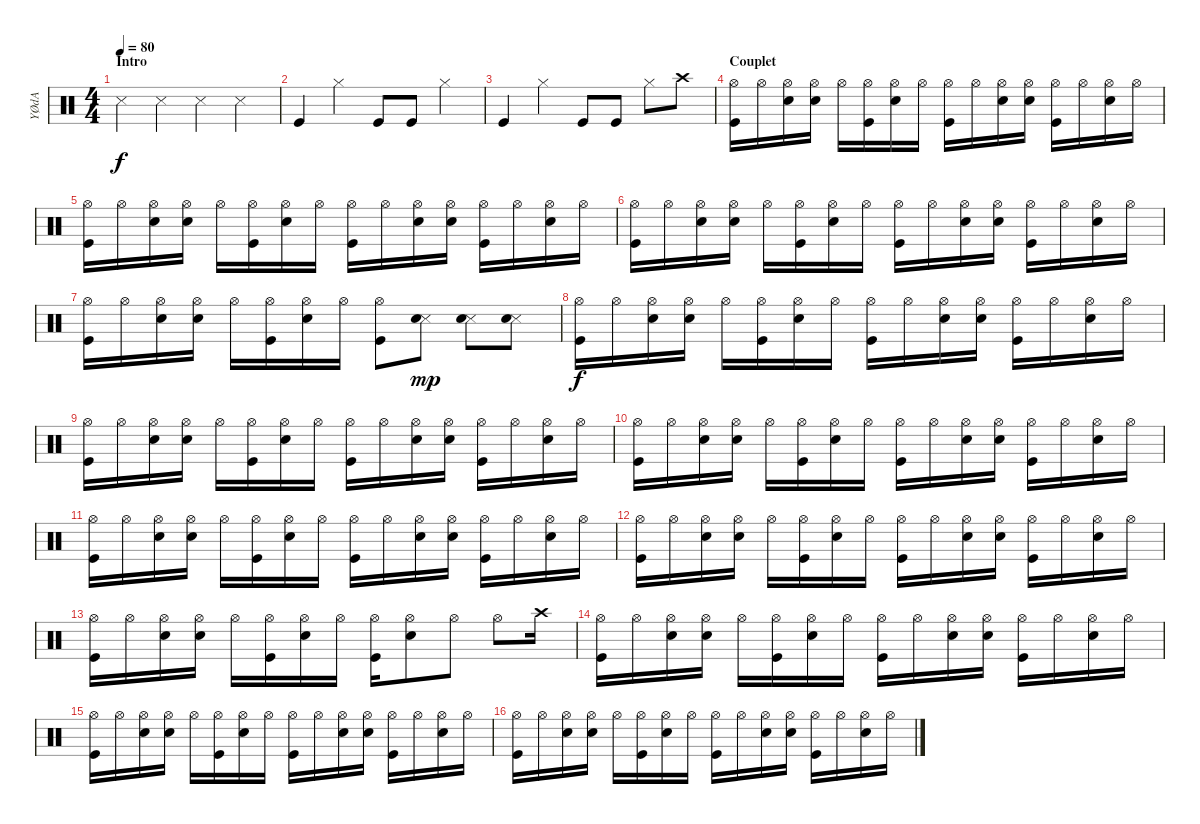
\track ("YØdA" "YØdA") {instrument percussion}
\staff {score}
\articulation defaults
\ts (4 4)
\section ("" "Intro")
\tempo 80
\clef neutral
\ks c "Snare (side stick) 3".4{dy f} "Snare (side stick) 3".4 "Snare (side stick) 3".4 "Snare (side stick) 3".4
|
"Kick (hit)".4 "Hi-Hat (closed)".4 "Kick (hit)".8 "Kick (hit)".8 "Hi-Hat (closed)".4 |
"Kick (hit)".4 "Hi-Hat (closed)".4 "Kick (hit)".8 "Kick (hit)".8 "Hi-Hat (closed)".8 "Crash high (hit)".8 |
\section ("" "Couplet")
("Hi-Hat (open)" "Kick (hit)").16 "Hi-Hat (open)".16 ("Hi-Hat (open)" "Electric Snare (hit)").16 ("Hi-Hat (open)" "Electric Snare (hit)").16 "Hi-Hat (open)".16 ("Hi-Hat (open)" "Kick (hit)").16 ("Hi-Hat (open)" "Electric Snare (hit)").16 "Hi-Hat (open)".16 ("Hi-Hat (open)" "Kick (hit)").16 "Hi-Hat (open)".16 ("Hi-Hat (open)" "Electric Snare (hit)").16 ("Hi-Hat (open)" "Electric Snare (hit)").16 ("Hi-Hat (open)" "Kick (hit)").16 "Hi-Hat (open)".16 ("Hi-Hat (open)" "Electric Snare (hit)").16 "Hi-Hat (open)".16 |
("Hi-Hat (open)" "Kick (hit)").16 "Hi-Hat (open)".16 ("Hi-Hat (open)" "Electric Snare (hit)").16 ("Hi-Hat (open)" "Electric Snare (hit)").16 "Hi-Hat (open)".16 ("Hi-Hat (open)" "Kick (hit)").16 ("Hi-Hat (open)" "Electric Snare (hit)").16 "Hi-Hat (open)".16 ("Hi-Hat (open)" "Kick (hit)").16 "Hi-Hat (open)".16 ("Hi-Hat (open)" "Electric Snare (hit)").16 ("Hi-Hat (open)" "Electric Snare (hit)").16 ("Hi-Hat (open)" "Kick (hit)").16 "Hi-Hat (open)".16 ("Hi-Hat (open)" "Electric Snare (hit)").16 "Hi-Hat (open)".16 |
("Hi-Hat (open)" "Kick (hit)").16 "Hi-Hat (open)".16 ("Hi-Hat (open)" "Electric Snare (hit)").16 ("Hi-Hat (open)" "Electric Snare (hit)").16 "Hi-Hat (open)".16 ("Hi-Hat (open)" "Kick (hit)").16 ("Hi-Hat (open)" "Electric Snare (hit)").16 "Hi-Hat (open)".16 ("Hi-Hat (open)" "Kick (hit)").16 "Hi-Hat (open)".16 ("Hi-Hat (open)" "Electric Snare (hit)").16 ("Hi-Hat (open)" "Electric Snare (hit)").16 ("Hi-Hat (open)" "Kick (hit)").16 "Hi-Hat (open)".16 ("Hi-Hat (open)" "Electric Snare (hit)").16 "Hi-Hat (open)".16 |
("Hi-Hat (open)" "Kick (hit)").16 "Hi-Hat (open)".16 ("Hi-Hat (open)" "Electric Snare (hit)").16 ("Hi-Hat (open)" "Electric Snare (hit)").16 "Hi-Hat (open)".16 ("Hi-Hat (open)" "Kick (hit)").16 ("Hi-Hat (open)" "Electric Snare (hit)").16 "Hi-Hat (open)".16 ("Hi-Hat (open)" "Kick (hit)").8 ("Snare (side stick) 3" "Snare (hit) 2").8{dy mp} ("Snare (side stick) 3" "Snare (hit) 2").8 ("Snare (side stick) 3" "Snare (hit) 2").8 |
("Hi-Hat (open)" "Kick (hit)").16{dy f} "Hi-Hat (open)".16 ("Hi-Hat (open)" "Electric Snare (hit)").16 ("Hi-Hat (open)" "Electric Snare (hit)").16 "Hi-Hat (open)".16 ("Hi-Hat (open)" "Kick (hit)").16 ("Hi-Hat (open)" "Electric Snare (hit)").16 "Hi-Hat (open)".16 ("Hi-Hat (open)" "Kick (hit)").16 "Hi-Hat (open)".16 ("Hi-Hat (open)" "Electric Snare (hit)").16 ("Hi-Hat (open)" "Electric Snare (hit)").16 ("Hi-Hat (open)" "Kick (hit)").16 "Hi-Hat (open)".16 ("Hi-Hat (open)" "Electric Snare (hit)").16 "Hi-Hat (open)".16 |
("Hi-Hat (open)" "Kick (hit)").16 "Hi-Hat (open)".16 ("Hi-Hat (open)" "Electric Snare (hit)").16 ("Hi-Hat (open)" "Electric Snare (hit)").16 "Hi-Hat (open)".16 ("Hi-Hat (open)" "Kick (hit)").16 ("Hi-Hat (open)" "Electric Snare (hit)").16 "Hi-Hat (open)".16 ("Hi-Hat (open)" "Kick (hit)").16 "Hi-Hat (open)".16 ("Hi-Hat (open)" "Electric Snare (hit)").16 ("Hi-Hat (open)" "Electric Snare (hit)").16 ("Hi-Hat (open)" "Kick (hit)").16 "Hi-Hat (open)".16 ("Hi-Hat (open)" "Electric Snare (hit)").16 "Hi-Hat (open)".16 |
("Hi-Hat (open)" "Kick (hit)").16 "Hi-Hat (open)".16 ("Hi-Hat (open)" "Electric Snare (hit)").16 ("Hi-Hat (open)" "Electric Snare (hit)").16 "Hi-Hat (open)".16 ("Hi-Hat (open)" "Kick (hit)").16 ("Hi-Hat (open)" "Electric Snare (hit)").16 "Hi-Hat (open)".16 ("Hi-Hat (open)" "Kick (hit)").16 "Hi-Hat (open)".16 ("Hi-Hat (open)" "Electric Snare (hit)").16 ("Hi-Hat (open)" "Electric Snare (hit)").16 ("Hi-Hat (open)" "Kick (hit)").16 "Hi-Hat (open)".16 ("Hi-Hat (open)" "Electric Snare (hit)").16 "Hi-Hat (open)".16 |
("Hi-Hat (open)" "Kick (hit)").16 "Hi-Hat (open)".16 ("Hi-Hat (open)" "Electric Snare (hit)").16 ("Hi-Hat (open)" "Electric Snare (hit)").16 "Hi-Hat (open)".16 ("Hi-Hat (open)" "Kick (hit)").16 ("Hi-Hat (open)" "Electric Snare (hit)").16 "Hi-Hat (open)".16 ("Hi-Hat (open)" "Kick (hit)").16 "Hi-Hat (open)".16 ("Hi-Hat (open)" "Electric Snare (hit)").16 ("Hi-Hat (open)" "Electric Snare (hit)").16 ("Hi-Hat (open)" "Kick (hit)").16 "Hi-Hat (open)".16 ("Hi-Hat (open)" "Electric Snare (hit)").16 "Hi-Hat (open)".16 |
("Hi-Hat (open)" "Kick (hit)").16 "Hi-Hat (open)".16 ("Hi-Hat (open)" "Electric Snare (hit)").16 ("Hi-Hat (open)" "Electric Snare (hit)").16 "Hi-Hat (open)".16 ("Hi-Hat (open)" "Kick (hit)").16 ("Hi-Hat (open)" "Electric Snare (hit)").16 "Hi-Hat (open)".16 ("Hi-Hat (open)" "Kick (hit)").16 "Hi-Hat (open)".16 ("Hi-Hat (open)" "Electric Snare (hit)").16 ("Hi-Hat (open)" "Electric Snare (hit)").16 ("Hi-Hat (open)" "Kick (hit)").16 "Hi-Hat (open)".16 ("Hi-Hat (open)" "Electric Snare (hit)").16 "Hi-Hat (open)".16 |
("Hi-Hat (open)" "Kick (hit)").16 "Hi-Hat (open)".16 ("Hi-Hat (open)" "Electric Snare (hit)").16 ("Hi-Hat (open)" "Electric Snare (hit)").16 "Hi-Hat (open)".16 ("Hi-Hat (open)" "Kick (hit)").16 ("Hi-Hat (open)" "Electric Snare (hit)").16 "Hi-Hat (open)".16 ("Hi-Hat (open)" "Kick (hit)").16 ("Hi-Hat (open)" "Electric Snare (hit)").8 "Hi-Hat (open)".8 "Hi-Hat (open)".8 "Crash high (hit)".16 |
("Hi-Hat (open)" "Kick (hit)").16 "Hi-Hat (open)".16 ("Hi-Hat (open)" "Electric Snare (hit)").16 ("Hi-Hat (open)" "Electric Snare (hit)").16 "Hi-Hat (open)".16 ("Hi-Hat (open)" "Kick (hit)").16 ("Hi-Hat (open)" "Electric Snare (hit)").16 "Hi-Hat (open)".16 ("Hi-Hat (open)" "Kick (hit)").16 "Hi-Hat (open)".16 ("Hi-Hat (open)" "Electric Snare (hit)").16 ("Hi-Hat (open)" "Electric Snare (hit)").16 ("Hi-Hat (open)" "Kick (hit)").16 "Hi-Hat (open)".16 ("Hi-Hat (open)" "Electric Snare (hit)").16 "Hi-Hat (open)".16 |
("Hi-Hat (open)" "Kick (hit)").16 "Hi-Hat (open)".16 ("Hi-Hat (open)" "Electric Snare (hit)").16 ("Hi-Hat (open)" "Electric Snare (hit)").16 "Hi-Hat (open)".16 ("Hi-Hat (open)" "Kick (hit)").16 ("Hi-Hat (open)" "Electric Snare (hit)").16 "Hi-Hat (open)".16 ("Hi-Hat (open)" "Kick (hit)").16 "Hi-Hat (open)".16 ("Hi-Hat (open)" "Electric Snare (hit)").16 ("Hi-Hat (open)" "Electric Snare (hit)").16 ("Hi-Hat (open)" "Kick (hit)").16 "Hi-Hat (open)".16 ("Hi-Hat (open)" "Electric Snare (hit)").16 "Hi-Hat (open)".16 |
("Hi-Hat (open)" "Kick (hit)").16 "Hi-Hat (open)".16 ("Hi-Hat (open)" "Electric Snare (hit)").16 ("Hi-Hat (open)" "Electric Snare (hit)").16 "Hi-Hat (open)".16 ("Hi-Hat (open)" "Kick (hit)").16 ("Hi-Hat (open)" "Electric Snare (hit)").16 "Hi-Hat (open)".16 ("Hi-Hat (open)" "Kick (hit)").16 "Hi-Hat (open)".16 ("Hi-Hat (open)" "Electric Snare (hit)").16 ("Hi-Hat (open)" "Electric Snare (hit)").16 ("Hi-Hat (open)" "Kick (hit)").16 "Hi-Hat (open)".16 ("Hi-Hat (open)" "Electric Snare (hit)").16 "Hi-Hat (open)".16
